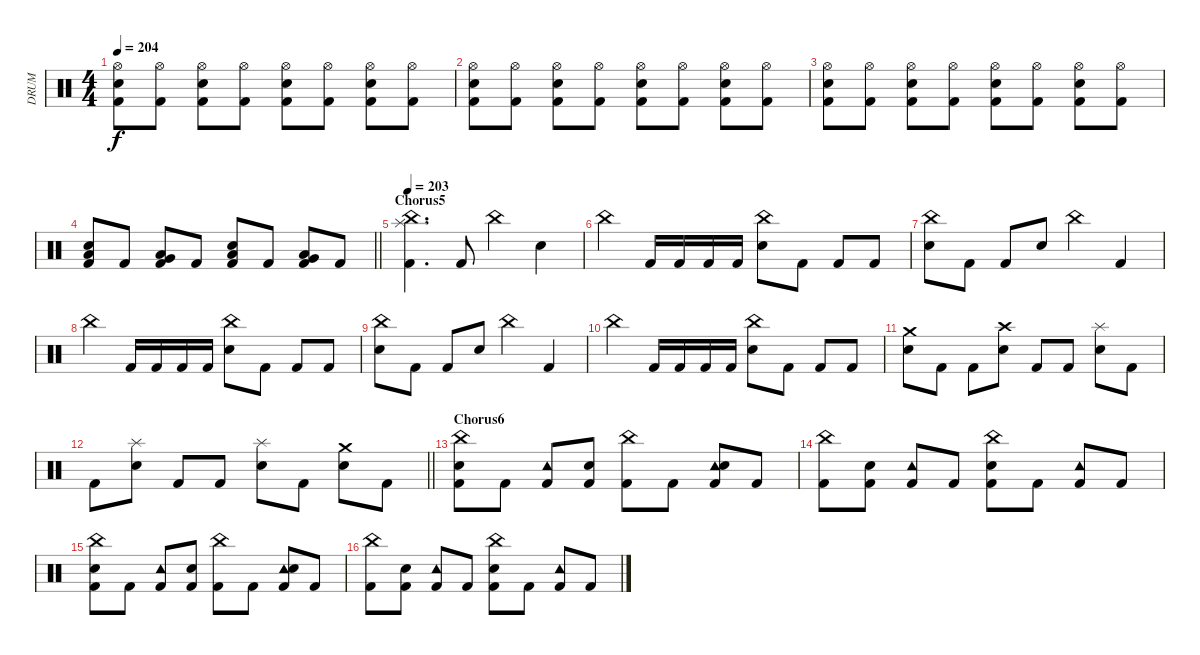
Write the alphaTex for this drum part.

\track ("DRUM" "DRUM") {instrument percussion bank 102}
\staff {score}
\articulation defaults
\ts (4 4)
\tempo 204
\clef neutral
\ks c
("Hi-Hat (open)" "Electric Snare (hit)" "Kick (hit) 2").8{dy f} ("Hi-Hat (open)" "Kick (hit) 2").8 ("Hi-Hat (open)" "Electric Snare (hit)" "Kick (hit) 2").8 ("Hi-Hat (open)" "Kick (hit) 2").8 ("Hi-Hat (open)" "Electric Snare (hit)" "Kick (hit) 2").8 ("Hi-Hat (open)" "Kick (hit) 2").8 ("Hi-Hat (open)" "Electric Snare (hit)" "Kick (hit) 2").8 ("Hi-Hat (open)" "Kick (hit) 2").8 |
("Hi-Hat (open)" "Electric Snare (hit)" "Kick (hit) 2").8 ("Hi-Hat (open)" "Kick (hit) 2").8 ("Hi-Hat (open)" "Electric Snare (hit)" "Kick (hit) 2").8 ("Hi-Hat (open)" "Kick (hit) 2").8 ("Hi-Hat (open)" "Electric Snare (hit)" "Kick (hit) 2").8 ("Hi-Hat (open)" "Kick (hit) 2").8 ("Hi-Hat (open)" "Electric Snare (hit)" "Kick (hit) 2").8 ("Hi-Hat (open)" "Kick (hit) 2").8 |
("Hi-Hat (open)" "Electric Snare (hit)" "Kick (hit) 2").8 ("Hi-Hat (open)" "Kick (hit) 2").8 ("Hi-Hat (open)" "Electric Snare (hit)" "Kick (hit) 2").8 ("Hi-Hat (open)" "Kick (hit) 2").8 ("Hi-Hat (open)" "Electric Snare (hit)" "Kick (hit) 2").8 ("Hi-Hat (open)" "Kick (hit) 2").8 ("Hi-Hat (open)" "Electric Snare (hit)" "Kick (hit) 2").8 ("Hi-Hat (open)" "Kick (hit) 2").8 |
\barLineRight lightlight
("Electric Snare (hit)" "Low Floor Tom (hit)" "Kick (hit) 2").8 "Kick (hit) 2".8 ("Low Tom (hit)" "Very Low Tom (hit)" "Kick (hit) 2").8 "Kick (hit) 2".8 ("Electric Snare (hit)" "Low Floor Tom (hit)" "Kick (hit) 2").8 "Kick (hit) 2".8 ("Low Tom (hit)" "Very Low Tom (hit)" "Kick (hit) 2").8 "Kick (hit) 2".8 |
\section ("" "Chorus5")
\tempo 203
("China (hit)" "Splash (hit)" "Kick (hit) 2").4{d} "Kick (hit) 2".8 "China (hit)".4 "Electric Snare (hit)".4 |
"China (hit)".4 "Kick (hit) 2".16 "Kick (hit) 2".16 "Kick (hit) 2".16 "Kick (hit) 2".16 ("China (hit)" "Electric Snare (hit)").8 "Kick (hit) 2".8 "Kick (hit) 2".8 "Kick (hit) 2".8 |
("China (hit)" "Electric Snare (hit)").8 "Kick (hit) 2".8 "Kick (hit) 2".8 "Electric Snare (hit)".8 "China (hit)".4 "Kick (hit) 2".4 |
"China (hit)".4 "Kick (hit) 2".16 "Kick (hit) 2".16 "Kick (hit) 2".16 "Kick (hit) 2".16 ("China (hit)" "Electric Snare (hit)").8 "Kick (hit) 2".8 "Kick (hit) 2".8 "Kick (hit) 2".8 |
("China (hit)" "Electric Snare (hit)").8 "Kick (hit) 2".8 "Kick (hit) 2".8 "Electric Snare (hit)".8 "China (hit)".4 "Kick (hit) 2".4 |
"China (hit)".4 "Kick (hit) 2".16 "Kick (hit) 2".16 "Kick (hit) 2".16 "Kick (hit) 2".16 ("China (hit)" "Electric Snare (hit)").8 "Kick (hit) 2".8 "Kick (hit) 2".8 "Kick (hit) 2".8 |
("Crash medium (hit)" "Electric Snare (hit)").8 "Kick (hit) 2".8 "Kick (hit) 2".8 ("Crash high (hit)" "Electric Snare (hit)").8 "Kick (hit) 2".8 "Kick (hit) 2".8 ("Splash (hit)" "Electric Snare (hit)").8 "Kick (hit) 2".8 |
\barLineRight lightlight "Kick (hit) 2".8
("Splash (hit)" "Electric Snare (hit)").8 "Kick (hit) 2".8 "Kick (hit) 2".8 ("Splash (hit)" "Electric Snare (hit)").8 "Kick (hit) 2".8 ("Crash medium (hit)" "Electric Snare (hit)").8 "Kick (hit) 2".8 |
\section ("" "Chorus6")
("China (hit)" "Electric Snare (hit)" "Kick (hit) 2").8 "Kick (hit) 2".8 ("Tambourine (hit)" "Kick (hit) 2").8 ("Electric Snare (hit)" "Kick (hit) 2").8 ("China (hit)" "Kick (hit) 2").8 "Kick (hit) 2".8 ("Tambourine (hit)" "Electric Snare (hit)" "Kick (hit) 2").8 "Kick (hit) 2".8 |
("China (hit)" "Kick (hit) 2").8 ("Electric Snare (hit)" "Kick (hit) 2").8 ("Tambourine (hit)" "Kick (hit) 2").8 "Kick (hit) 2".8 ("China (hit)" "Electric Snare (hit)" "Kick (hit) 2").8 "Kick (hit) 2".8 ("Tambourine (hit)" "Kick (hit) 2").8 "Kick (hit) 2".8 |
("China (hit)" "Electric Snare (hit)" "Kick (hit) 2").8 "Kick (hit) 2".8 ("Tambourine (hit)" "Kick (hit) 2").8 ("Electric Snare (hit)" "Kick (hit) 2").8 ("China (hit)" "Kick (hit) 2").8 "Kick (hit) 2".8 ("Tambourine (hit)" "Electric Snare (hit)" "Kick (hit) 2").8 "Kick (hit) 2".8 |
("China (hit)" "Kick (hit) 2").8 ("Electric Snare (hit)" "Kick (hit) 2").8 ("Tambourine (hit)" "Kick (hit) 2").8 "Kick (hit) 2".8 ("China (hit)" "Electric Snare (hit)" "Kick (hit) 2").8 "Kick (hit) 2".8 ("Tambourine (hit)" "Kick (hit) 2").8 "Kick (hit) 2".8
